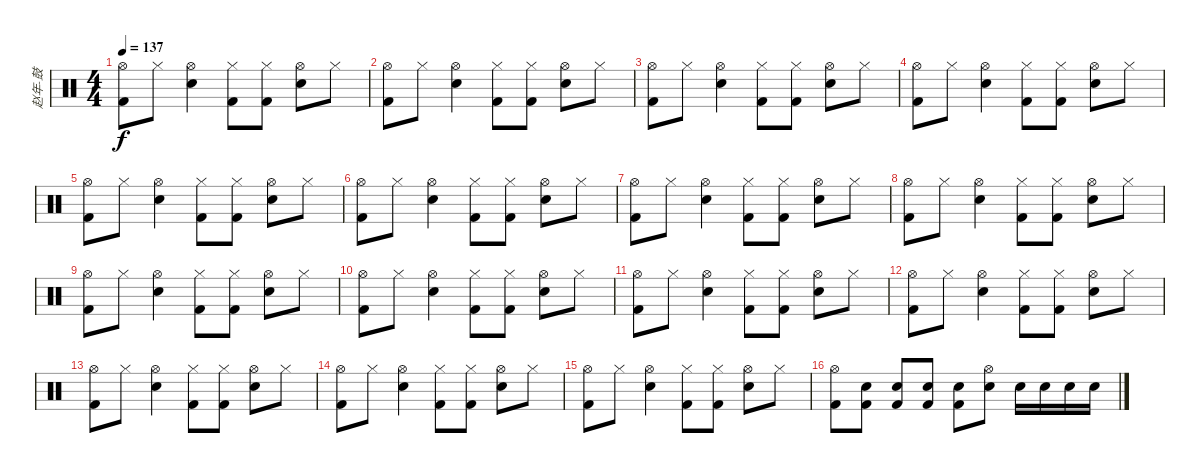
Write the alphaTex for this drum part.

\track ("赵年-鼓" "赵年-鼓") {instrument percussion}
\staff {score}
\articulation defaults
\ts (4 4)
\tempo 137
\clef neutral
\ks c
("Hi-Hat (open)" "Kick (hit) 2").8{dy f} "Hi-Hat (closed)".8 ("Electric Snare (hit)" "Hi-Hat (open)").4 ("Hi-Hat (closed)" "Kick (hit) 2").8 ("Hi-Hat (closed)" "Kick (hit) 2").8 ("Hi-Hat (open)" "Electric Snare (hit)").8 "Hi-Hat (closed)".8 |
("Hi-Hat (open)" "Kick (hit) 2").8 "Hi-Hat (closed)".8 ("Electric Snare (hit)" "Hi-Hat (open)").4 ("Hi-Hat (closed)" "Kick (hit) 2").8 ("Hi-Hat (closed)" "Kick (hit) 2").8 ("Hi-Hat (open)" "Electric Snare (hit)").8 "Hi-Hat (closed)".8 |
("Hi-Hat (open)" "Kick (hit) 2").8 "Hi-Hat (closed)".8 ("Electric Snare (hit)" "Hi-Hat (open)").4 ("Hi-Hat (closed)" "Kick (hit) 2").8 ("Hi-Hat (closed)" "Kick (hit) 2").8 ("Hi-Hat (open)" "Electric Snare (hit)").8 "Hi-Hat (closed)".8 |
("Hi-Hat (open)" "Kick (hit) 2").8 "Hi-Hat (closed)".8 ("Electric Snare (hit)" "Hi-Hat (open)").4 ("Hi-Hat (closed)" "Kick (hit) 2").8 ("Hi-Hat (closed)" "Kick (hit) 2").8 ("Hi-Hat (open)" "Electric Snare (hit)").8 "Hi-Hat (closed)".8 |
("Hi-Hat (open)" "Kick (hit) 2").8 "Hi-Hat (closed)".8 ("Electric Snare (hit)" "Hi-Hat (open)").4 ("Hi-Hat (closed)" "Kick (hit) 2").8 ("Hi-Hat (closed)" "Kick (hit) 2").8 ("Hi-Hat (open)" "Electric Snare (hit)").8 "Hi-Hat (closed)".8 |
("Hi-Hat (open)" "Kick (hit) 2").8 "Hi-Hat (closed)".8 ("Electric Snare (hit)" "Hi-Hat (open)").4 ("Hi-Hat (closed)" "Kick (hit) 2").8 ("Hi-Hat (closed)" "Kick (hit) 2").8 ("Hi-Hat (open)" "Electric Snare (hit)").8 "Hi-Hat (closed)".8 |
("Hi-Hat (open)" "Kick (hit) 2").8 "Hi-Hat (closed)".8 ("Electric Snare (hit)" "Hi-Hat (open)").4 ("Hi-Hat (closed)" "Kick (hit) 2").8 ("Hi-Hat (closed)" "Kick (hit) 2").8 ("Hi-Hat (open)" "Electric Snare (hit)").8 "Hi-Hat (closed)".8 |
("Hi-Hat (open)" "Kick (hit) 2").8 "Hi-Hat (closed)".8 ("Electric Snare (hit)" "Hi-Hat (open)").4 ("Hi-Hat (closed)" "Kick (hit) 2").8 ("Hi-Hat (closed)" "Kick (hit) 2").8 ("Hi-Hat (open)" "Electric Snare (hit)").8 "Hi-Hat (closed)".8 |
("Hi-Hat (open)" "Kick (hit) 2").8 "Hi-Hat (closed)".8 ("Electric Snare (hit)" "Hi-Hat (open)").4 ("Hi-Hat (closed)" "Kick (hit) 2").8 ("Hi-Hat (closed)" "Kick (hit) 2").8 ("Hi-Hat (open)" "Electric Snare (hit)").8 "Hi-Hat (closed)".8 |
("Hi-Hat (open)" "Kick (hit) 2").8 "Hi-Hat (closed)".8 ("Electric Snare (hit)" "Hi-Hat (open)").4 ("Hi-Hat (closed)" "Kick (hit) 2").8 ("Hi-Hat (closed)" "Kick (hit) 2").8 ("Hi-Hat (open)" "Electric Snare (hit)").8 "Hi-Hat (closed)".8 |
("Hi-Hat (open)" "Kick (hit) 2").8 "Hi-Hat (closed)".8 ("Electric Snare (hit)" "Hi-Hat (open)").4 ("Hi-Hat (closed)" "Kick (hit) 2").8 ("Hi-Hat (closed)" "Kick (hit) 2").8 ("Hi-Hat (open)" "Electric Snare (hit)").8 "Hi-Hat (closed)".8 |
("Hi-Hat (open)" "Kick (hit) 2").8 "Hi-Hat (closed)".8 ("Electric Snare (hit)" "Hi-Hat (open)").4 ("Hi-Hat (closed)" "Kick (hit) 2").8 ("Hi-Hat (closed)" "Kick (hit) 2").8 ("Hi-Hat (open)" "Electric Snare (hit)").8 "Hi-Hat (closed)".8 |
("Hi-Hat (open)" "Kick (hit) 2").8 "Hi-Hat (closed)".8 ("Electric Snare (hit)" "Hi-Hat (open)").4 ("Hi-Hat (closed)" "Kick (hit) 2").8 ("Hi-Hat (closed)" "Kick (hit) 2").8 ("Hi-Hat (open)" "Electric Snare (hit)").8 "Hi-Hat (closed)".8 |
("Hi-Hat (open)" "Kick (hit) 2").8 "Hi-Hat (closed)".8 ("Electric Snare (hit)" "Hi-Hat (open)").4 ("Hi-Hat (closed)" "Kick (hit) 2").8 ("Hi-Hat (closed)" "Kick (hit) 2").8 ("Hi-Hat (open)" "Electric Snare (hit)").8 "Hi-Hat (closed)".8 |
("Hi-Hat (open)" "Kick (hit) 2").8 "Hi-Hat (closed)".8 ("Electric Snare (hit)" "Hi-Hat (open)").4 ("Hi-Hat (closed)" "Kick (hit) 2").8 ("Hi-Hat (closed)" "Kick (hit) 2").8 ("Hi-Hat (open)" "Electric Snare (hit)").8 "Hi-Hat (closed)".8 |
("Hi-Hat (open)" "Kick (hit) 2").8 ("Electric Snare (hit)" "Kick (hit) 2").8 ("Electric Snare (hit)" "Kick (hit) 2").8 ("Electric Snare (hit)" "Kick (hit) 2").8 ("Electric Snare (hit)" "Kick (hit) 2").8 ("Hi-Hat (open)" "Electric Snare (hit)").8 "Electric Snare (hit)".16 "Electric Snare (hit)".16 "Electric Snare (hit)".16 "Electric Snare (hit)".16
